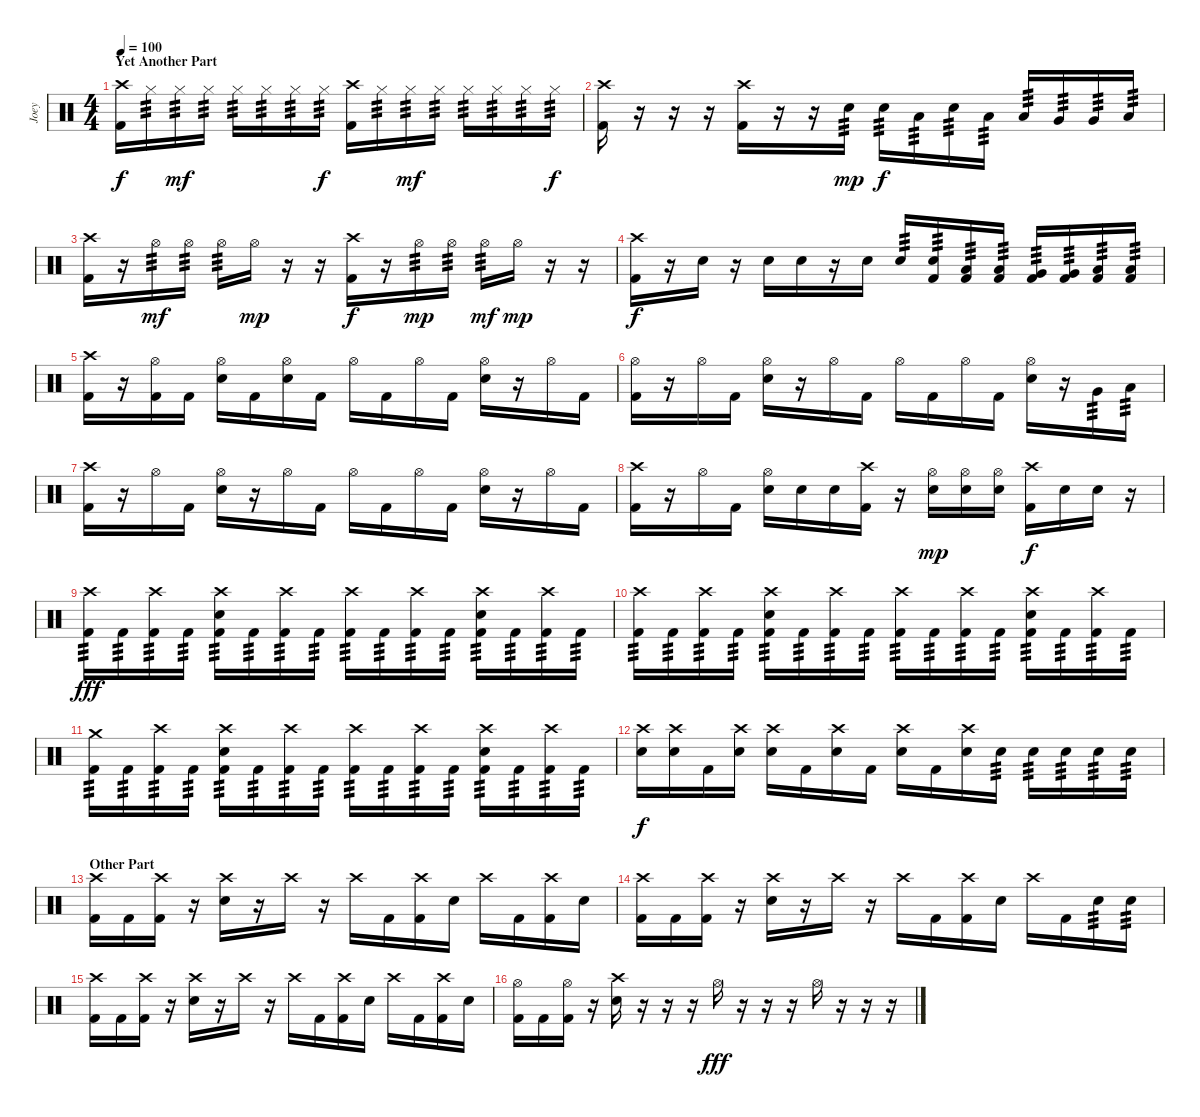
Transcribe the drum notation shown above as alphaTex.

\track ("Joey" "Joey") {instrument percussion}
\staff {score}
\articulation defaults
\ts (4 4)
\section ("" "Yet Another Part")
\tempo 100
\clef neutral
\ks c
("Crash high (hit)" "Kick (hit) 2").16{dy f} "Hi-Hat (closed)".16{tp 3} "Hi-Hat (closed)".16{tp 3 dy mf} "Hi-Hat (closed)".16{tp 3} "Hi-Hat (closed)".16{tp 3} "Hi-Hat (closed)".16{tp 3} "Hi-Hat (closed)".16{tp 3} "Hi-Hat (closed)".16{tp 3 dy f} ("Crash high (hit)" "Kick (hit) 2").16 "Hi-Hat (closed)".16{tp 3} "Hi-Hat (closed)".16{tp 3 dy mf} "Hi-Hat (closed)".16{tp 3} "Hi-Hat (closed)".16{tp 3} "Hi-Hat (closed)".16{tp 3} "Hi-Hat (closed)".16{tp 3} "Hi-Hat (closed)".16{tp 3 dy f} |
("Crash high (hit)" "Kick (hit) 2").16 r.16 r.16 r.16 ("Crash high (hit)" "Kick (hit) 2").16 r.16 r.16 "Electric Snare (hit)".16{tp 3 dy mp} "Electric Snare (hit)".16{tp 3 dy f} "Low Tom (hit)".16{tp 3} "Electric Snare (hit)".16{tp 3} "Low Tom (hit)".16{tp 3} "Low Tom (hit)".16{tp 3} "Very Low Tom (hit)".16{tp 3} "Very Low Tom (hit)".16{tp 3} "Low Floor Tom (hit)".16{tp 3} |
("Crash high (hit)" "Kick (hit) 2").16 r.16 "Hi-Hat (open)".16{tp 3 dy mf} "Hi-Hat (open)".16{tp 3} "Hi-Hat (open)".16{tp 3} "Hi-Hat (open)".16{dy mp} r.16 r.16 ("Crash high (hit)" "Kick (hit) 2").16{dy f} r.16 "Hi-Hat (open)".16{tp 3 dy mp} "Hi-Hat (open)".16{tp 3} "Hi-Hat (open)".16{tp 3 dy mf} "Hi-Hat (open)".16{dy mp} r.16 r.16 |
("Crash high (hit)" "Kick (hit) 2").16{dy f} r.16 "Electric Snare (hit)".16 r.16 "Electric Snare (hit)".16 "Electric Snare (hit)".16 r.16 "Electric Snare (hit)".16 "Electric Snare (hit)".16{tp 3} ("Electric Snare (hit)" "Kick (hit) 2").16{tp 3} ("Low Tom (hit)" "Kick (hit) 2").16{tp 3} ("Low Tom (hit)" "Kick (hit) 2").16{tp 3} ("Very Low Tom (hit)" "Kick (hit) 2").16{tp 3} ("Very Low Tom (hit)" "Kick (hit) 2").16{tp 3} ("Low Floor Tom (hit)" "Kick (hit) 2").16{tp 3} ("Low Floor Tom (hit)" "Kick (hit) 2").16{tp 3} |
("Crash high (hit)" "Kick (hit) 2").16 r.16 ("Hi-Hat (open)" "Kick (hit) 2").16 "Kick (hit) 2".16 ("Hi-Hat (open)" "Electric Snare (hit)").16 "Kick (hit) 2".16 ("Hi-Hat (open)" "Electric Snare (hit)").16 "Kick (hit) 2".16 "Hi-Hat (open)".16 "Kick (hit) 2".16 "Hi-Hat (open)".16 "Kick (hit) 2".16 ("Hi-Hat (open)" "Electric Snare (hit)").16 r.16 "Hi-Hat (open)".16 "Kick (hit) 2".16 |
("Hi-Hat (open)" "Kick (hit) 2").16 r.16 "Hi-Hat (open)".16 "Kick (hit) 2".16 ("Hi-Hat (open)" "Electric Snare (hit)").16 r.16 "Hi-Hat (open)".16 "Kick (hit) 2".16 "Hi-Hat (open)".16 "Kick (hit) 2".16 "Hi-Hat (open)".16 "Kick (hit) 2".16 ("Hi-Hat (open)" "Electric Snare (hit)").16 r.16 "Very Low Tom (hit)".16{tp 3} "Low Floor Tom (hit)".16{tp 3} |
("Crash high (hit)" "Kick (hit) 2").16 r.16 "Hi-Hat (open)".16 "Kick (hit) 2".16 ("Hi-Hat (open)" "Electric Snare (hit)").16 r.16 "Hi-Hat (open)".16 "Kick (hit) 2".16 "Hi-Hat (open)".16 "Kick (hit) 2".16 "Hi-Hat (open)".16 "Kick (hit) 2".16 ("Hi-Hat (open)" "Electric Snare (hit)").16 r.16 "Hi-Hat (open)".16 "Kick (hit) 2".16 |
("Crash high (hit)" "Kick (hit) 2").16 r.16 "Hi-Hat (open)".16 "Kick (hit) 2".16 ("Hi-Hat (open)" "Electric Snare (hit)").16 "Electric Snare (hit)".16 "Electric Snare (hit)".16 ("Crash high (hit)" "Kick (hit) 2").16 r.16 ("Hi-Hat (open)" "Electric Snare (hit)").16{dy mp} ("Hi-Hat (open)" "Electric Snare (hit)").16 ("Hi-Hat (open)" "Electric Snare (hit)").16 ("Crash high (hit)" "Kick (hit) 2").16{dy f} "Electric Snare (hit)".16 "Electric Snare (hit)".16 r.16 |
("Crash high (hit)" "Kick (hit) 2").16{tp 3 dy fff} "Kick (hit) 2".16{tp 3} ("Crash high (hit)" "Kick (hit) 2").16{tp 3} "Kick (hit) 2".16{tp 3} ("Crash high (hit)" "Electric Snare (hit)" "Kick (hit) 2").16{tp 3} "Kick (hit) 2".16{tp 3} ("Crash high (hit)" "Kick (hit) 2").16{tp 3} "Kick (hit) 2".16{tp 3} ("Crash high (hit)" "Kick (hit) 2").16{tp 3} "Kick (hit) 2".16{tp 3} ("Crash high (hit)" "Kick (hit) 2").16{tp 3} "Kick (hit) 2".16{tp 3} ("Crash high (hit)" "Electric Snare (hit)" "Kick (hit) 2").16{tp 3} "Kick (hit) 2".16{tp 3} ("Crash high (hit)" "Kick (hit) 2").16{tp 3} "Kick (hit) 2".16{tp 3} |
("Crash high (hit)" "Kick (hit) 2").16{tp 3} "Kick (hit) 2".16{tp 3} ("Crash high (hit)" "Kick (hit) 2").16{tp 3} "Kick (hit) 2".16{tp 3} ("Crash high (hit)" "Electric Snare (hit)" "Kick (hit) 2").16{tp 3} "Kick (hit) 2".16{tp 3} ("Crash high (hit)" "Kick (hit) 2").16{tp 3} "Kick (hit) 2".16{tp 3} ("Crash high (hit)" "Kick (hit) 2").16{tp 3} "Kick (hit) 2".16{tp 3} ("Crash high (hit)" "Kick (hit) 2").16{tp 3} "Kick (hit) 2".16{tp 3} ("Crash high (hit)" "Electric Snare (hit)" "Kick (hit) 2").16{tp 3} "Kick (hit) 2".16{tp 3} ("Crash high (hit)" "Kick (hit) 2").16{tp 3} "Kick (hit) 2".16{tp 3} |
("Crash medium (hit)" "Kick (hit) 2").16{tp 3} "Kick (hit) 2".16{tp 3} ("Crash high (hit)" "Kick (hit) 2").16{tp 3} "Kick (hit) 2".16{tp 3} ("Crash high (hit)" "Electric Snare (hit)" "Kick (hit) 2").16{tp 3} "Kick (hit) 2".16{tp 3} ("Crash high (hit)" "Kick (hit) 2").16{tp 3} "Kick (hit) 2".16{tp 3} ("Crash high (hit)" "Kick (hit) 2").16{tp 3} "Kick (hit) 2".16{tp 3} ("Crash high (hit)" "Kick (hit) 2").16{tp 3} "Kick (hit) 2".16{tp 3} ("Crash high (hit)" "Electric Snare (hit)" "Kick (hit) 2").16{tp 3} "Kick (hit) 2".16{tp 3} ("Crash high (hit)" "Kick (hit) 2").16{tp 3} "Kick (hit) 2".16{tp 3} |
("Crash high (hit)" "Electric Snare (hit)").16{dy f} ("Crash high (hit)" "Electric Snare (hit)").16 "Kick (hit) 2".16 ("Crash high (hit)" "Electric Snare (hit)").16 ("Crash high (hit)" "Electric Snare (hit)").16 "Kick (hit) 2".16 ("Crash high (hit)" "Electric Snare (hit)").16 "Kick (hit) 2".16 ("Crash high (hit)" "Electric Snare (hit)").16 "Kick (hit) 2".16 ("Crash high (hit)" "Electric Snare (hit)").16 "Electric Snare (hit)".16{tp 3} "Electric Snare (hit)".16{tp 3} "Electric Snare (hit)".16{tp 3} "Electric Snare (hit)".16{tp 3} "Electric Snare (hit)".16{tp 3} |
\section ("" "Other Part")
("Crash high (hit)" "Kick (hit) 2").16 "Kick (hit) 2".16 ("Crash high (hit)" "Kick (hit) 2").16 r.16 ("Crash high (hit)" "Electric Snare (hit)").16 r.16 "Crash high (hit)".16 r.16 "Crash high (hit)".16 "Kick (hit) 2".16 ("Crash high (hit)" "Kick (hit) 2").16 "Electric Snare (hit)".16 "Crash high (hit)".16 "Kick (hit) 2".16 ("Crash high (hit)" "Kick (hit) 2").16 "Electric Snare (hit)".16 |
("Crash high (hit)" "Kick (hit) 2").16 "Kick (hit) 2".16 ("Crash high (hit)" "Kick (hit) 2").16 r.16 ("Crash high (hit)" "Electric Snare (hit)").16 r.16 "Crash high (hit)".16 r.16 "Crash high (hit)".16 "Kick (hit) 2".16 ("Crash high (hit)" "Kick (hit) 2").16 "Electric Snare (hit)".16 "Crash high (hit)".16 "Kick (hit) 2".16 "Electric Snare (hit)".16{tp 3} "Electric Snare (hit)".16{tp 3} |
("Crash high (hit)" "Kick (hit) 2").16 "Kick (hit) 2".16 ("Crash high (hit)" "Kick (hit) 2").16 r.16 ("Crash high (hit)" "Electric Snare (hit)").16 r.16 "Crash high (hit)".16 r.16 "Crash high (hit)".16 "Kick (hit) 2".16 ("Crash high (hit)" "Kick (hit) 2").16 "Electric Snare (hit)".16 "Crash high (hit)".16 "Kick (hit) 2".16 ("Crash high (hit)" "Kick (hit) 2").16 "Electric Snare (hit)".16 |
("Hi-Hat (open)" "Kick (hit) 2").16 "Kick (hit) 2".16 ("Hi-Hat (open)" "Kick (hit) 2").16 r.16 ("Crash high (hit)" "Electric Snare (hit)").16 r.16 r.16 r.16 "Hi-Hat (open)".16{dy fff} r.16 r.16 r.16 "Hi-Hat (open)".16 r.16 r.16 r.16
